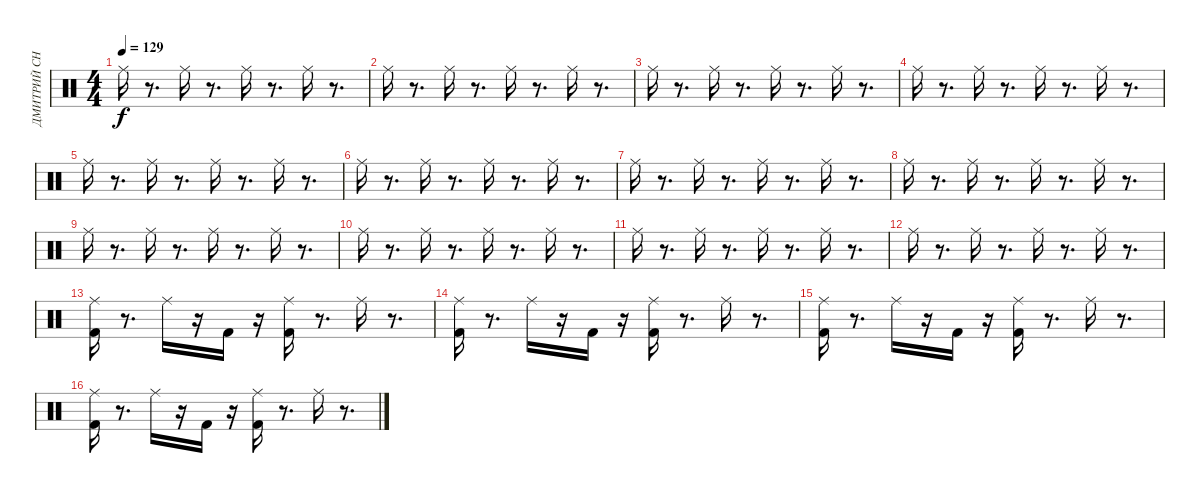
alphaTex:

\track ("ДМИТРИЙ СНЭЙК" "ДМИТРИЙ СН") {instrument percussion}
\staff {score}
\articulation defaults
\ts (4 4)
\tempo 129
\clef neutral
\ks c "Ride (middle)".16{dy f}
r.8{d} "Ride (middle)".16 r.8{d} "Ride (middle)".16 r.8{d} "Ride (middle)".16 r.8{d} |
"Ride (middle)".16 r.8{d} "Ride (middle)".16 r.8{d} "Ride (middle)".16 r.8{d} "Ride (middle)".16 r.8{d} |
"Ride (middle)".16 r.8{d} "Ride (middle)".16 r.8{d} "Ride (middle)".16 r.8{d} "Ride (middle)".16 r.8{d} |
"Ride (middle)".16 r.8{d} "Ride (middle)".16 r.8{d} "Ride (middle)".16 r.8{d} "Ride (middle)".16 r.8{d} |
"Ride (middle)".16 r.8{d} "Ride (middle)".16 r.8{d} "Ride (middle)".16 r.8{d} "Ride (middle)".16 r.8{d} |
"Ride (middle)".16 r.8{d} "Ride (middle)".16 r.8{d} "Ride (middle)".16 r.8{d} "Ride (middle)".16 r.8{d} |
"Ride (middle)".16 r.8{d} "Ride (middle)".16 r.8{d} "Ride (middle)".16 r.8{d} "Ride (middle)".16 r.8{d} |
"Ride (middle)".16 r.8{d} "Ride (middle)".16 r.8{d} "Ride (middle)".16 r.8{d} "Ride (middle)".16 r.8{d} |
"Ride (middle)".16 r.8{d} "Ride (middle)".16 r.8{d} "Ride (middle)".16 r.8{d} "Ride (middle)".16 r.8{d} |
"Ride (middle)".16 r.8{d} "Ride (middle)".16 r.8{d} "Ride (middle)".16 r.8{d} "Ride (middle)".16 r.8{d} |
"Ride (middle)".16 r.8{d} "Ride (middle)".16 r.8{d} "Ride (middle)".16 r.8{d} "Ride (middle)".16 r.8{d} |
"Ride (middle)".16 r.8{d} "Ride (middle)".16 r.8{d} "Ride (middle)".16 r.8{d} "Ride (middle)".16 r.8{d} |
("Kick (hit) 2" "Ride (middle)").16 r.8{d} "Ride (middle)".16 r.16 "Kick (hit) 2".16 r.16 ("Kick (hit) 2" "Ride (middle)").16 r.8{d} "Ride (middle)".16 r.8{d} |
("Kick (hit) 2" "Ride (middle)").16 r.8{d} "Ride (middle)".16 r.16 "Kick (hit) 2".16 r.16 ("Kick (hit) 2" "Ride (middle)").16 r.8{d} "Ride (middle)".16 r.8{d} |
("Kick (hit) 2" "Ride (middle)").16 r.8{d} "Ride (middle)".16 r.16 "Kick (hit) 2".16 r.16 ("Kick (hit) 2" "Ride (middle)").16 r.8{d} "Ride (middle)".16 r.8{d} |
("Kick (hit) 2" "Ride (middle)").16 r.8{d} "Ride (middle)".16 r.16 "Kick (hit) 2".16 r.16 ("Kick (hit) 2" "Ride (middle)").16 r.8{d} "Ride (middle)".16 r.8{d}
